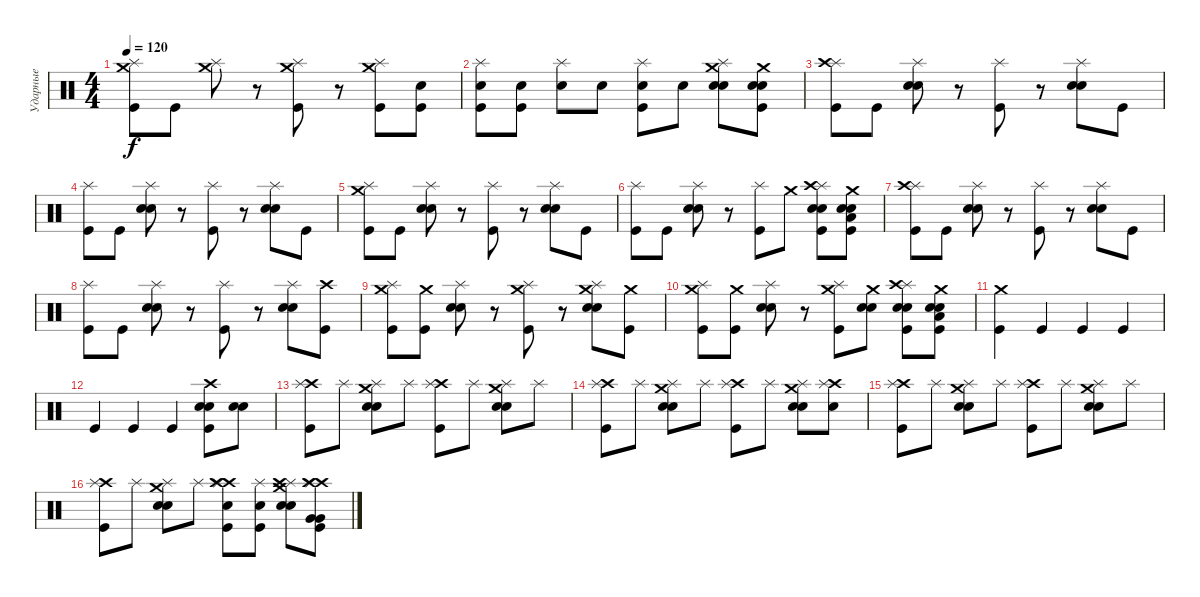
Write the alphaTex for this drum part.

\track ("Ударные" "Ударные") {instrument percussion}
\staff {score}
\articulation defaults
\ts (4 4)
\tempo 120
\clef neutral
\ks c
("Splash (hit)" "Crash medium (hit)" "Kick (hit)").8{dy f} "Kick (hit)".8 ("Splash (hit)" "Crash medium (hit)").8 r.8 ("Splash (hit)" "Crash medium (hit)" "Kick (hit)").8 r.8 ("Splash (hit)" "Crash medium (hit)" "Kick (hit)").8 ("Snare (hit) 2" "Kick (hit)").8 |
("Splash (hit)" "Snare (hit) 2" "Kick (hit)").8 ("Snare (hit) 2" "Kick (hit)").8 ("Splash (hit)" "Snare (hit) 2").8 "Snare (hit) 2".8 ("Splash (hit)" "Snare (hit) 2" "Kick (hit)").8 "Electric Snare (hit)".8 ("Splash (hit)" "Crash medium (hit)" "Electric Snare (hit)" "Electric Snare (hit)").8 ("Crash medium (hit)" "Electric Snare (hit)" "Electric Snare (hit)" "Kick (hit)").8 |
("Splash (hit)" "Crash high (hit)" "Kick (hit)").8 "Kick (hit)".8 ("Splash (hit)" "Electric Snare (hit)" "Electric Snare (hit)").8 r.8 ("Splash (hit)" "Kick (hit)").8 r.8 ("Splash (hit)" "Electric Snare (hit)" "Electric Snare (hit)").8 "Kick (hit)".8 |
("Splash (hit)" "Kick (hit)").8 "Kick (hit)".8 ("Splash (hit)" "Electric Snare (hit)" "Electric Snare (hit)").8 r.8 ("Splash (hit)" "Kick (hit)").8 r.8 ("Splash (hit)" "Electric Snare (hit)" "Electric Snare (hit)").8 "Kick (hit)".8 |
("Splash (hit)" "Crash medium (hit)" "Kick (hit)").8 "Kick (hit)".8 ("Splash (hit)" "Electric Snare (hit)" "Electric Snare (hit)").8 r.8 ("Splash (hit)" "Kick (hit)").8 r.8 ("Splash (hit)" "Electric Snare (hit)" "Electric Snare (hit)").8 "Kick (hit)".8 |
("Splash (hit)" "Kick (hit)").8 "Kick (hit)".8 ("Splash (hit)" "Electric Snare (hit)" "Electric Snare (hit)").8 r.8 ("Splash (hit)" "Kick (hit)").8 "Crash medium (hit)".8 ("Splash (hit)" "Crash high (hit)" "Electric Snare (hit)" "Electric Snare (hit)" "Kick (hit)").8 ("Crash medium (hit)" "Electric Snare (hit)" "Electric Snare (hit)" "Low Floor Tom (hit)" "Kick (hit)").8 |
("Splash (hit)" "Crash high (hit)" "Kick (hit)").8 "Kick (hit)".8 ("Splash (hit)" "Electric Snare (hit)" "Electric Snare (hit)").8 r.8 ("Splash (hit)" "Kick (hit)").8 r.8 ("Splash (hit)" "Electric Snare (hit)" "Electric Snare (hit)").8 "Kick (hit)".8 |
("Splash (hit)" "Kick (hit)").8 "Kick (hit)".8 ("Splash (hit)" "Electric Snare (hit)" "Electric Snare (hit)").8 r.8 ("Splash (hit)" "Kick (hit)").8 r.8 ("Splash (hit)" "Electric Snare (hit)" "Electric Snare (hit)").8 ("Crash high (hit)" "Kick (hit)").8 |
("Splash (hit)" "Crash medium (hit)" "Kick (hit)").8 ("Crash medium (hit)" "Kick (hit)").8 ("Splash (hit)" "Electric Snare (hit)" "Electric Snare (hit)").8 r.8 ("Splash (hit)" "Crash medium (hit)" "Kick (hit)").8 r.8 ("Splash (hit)" "Crash medium (hit)" "Electric Snare (hit)" "Electric Snare (hit)").8 ("Crash medium (hit)" "Kick (hit)").8 |
("Splash (hit)" "Crash medium (hit)" "Kick (hit)").8 ("Crash medium (hit)" "Kick (hit)").8 ("Splash (hit)" "Electric Snare (hit)" "Electric Snare (hit)").8 r.8 ("Splash (hit)" "Crash medium (hit)" "Kick (hit)").8 ("Crash medium (hit)" "Electric Snare (hit)" "Electric Snare (hit)").8 ("Splash (hit)" "Crash high (hit)" "Electric Snare (hit)" "Electric Snare (hit)" "Kick (hit)").8 ("Crash medium (hit)" "Electric Snare (hit)" "Electric Snare (hit)" "Low Floor Tom (hit)" "Kick (hit)").8 |
("Crash medium (hit)" "Kick (hit)").4 "Kick (hit)".4 "Kick (hit)".4 "Kick (hit)".4 |
"Kick (hit)".4 "Kick (hit)".4 "Kick (hit)".4 ("Crash high (hit)" "Electric Snare (hit)" "Electric Snare (hit)" "Kick (hit)").8 ("Electric Snare (hit)" "Electric Snare (hit)").8 |
("Crash high (hit)" "Splash (hit)" "Kick (hit)").8 "Splash (hit)".8 ("Crash medium (hit)" "Splash (hit)" "Electric Snare (hit)" "Electric Snare (hit)").8 "Splash (hit)".8 ("Crash high (hit)" "Splash (hit)" "Kick (hit)").8 "Splash (hit)".8 ("Crash medium (hit)" "Splash (hit)" "Electric Snare (hit)" "Electric Snare (hit)").8 "Splash (hit)".8 |
("Crash high (hit)" "Splash (hit)" "Kick (hit)").8 "Splash (hit)".8 ("Crash medium (hit)" "Splash (hit)" "Electric Snare (hit)" "Electric Snare (hit)").8 "Splash (hit)".8 ("Crash high (hit)" "Splash (hit)" "Kick (hit)").8 "Splash (hit)".8 ("Crash medium (hit)" "Splash (hit)" "Electric Snare (hit)" "Electric Snare (hit)").8 ("Crash high (hit)" "Splash (hit)" "Electric Snare (hit)").8 |
("Crash high (hit)" "Splash (hit)" "Kick (hit)").8 "Splash (hit)".8 ("Crash medium (hit)" "Splash (hit)" "Electric Snare (hit)" "Electric Snare (hit)").8 "Splash (hit)".8 ("Crash high (hit)" "Splash (hit)" "Kick (hit)").8 "Splash (hit)".8 ("Crash medium (hit)" "Splash (hit)" "Electric Snare (hit)" "Electric Snare (hit)").8 "Splash (hit)".8 |
("Crash high (hit)" "Splash (hit)" "Kick (hit)").8 "Splash (hit)".8 ("Crash medium (hit)" "Splash (hit)" "Electric Snare (hit)" "Electric Snare (hit)").8 "Splash (hit)".8 ("Crash high (hit)" "Splash (hit)" "Crash high (hit)" "Electric Snare (hit)" "Kick (hit)").8 ("Splash (hit)" "Electric Snare (hit)" "Kick (hit)").8 ("Crash medium (hit)" "Splash (hit)" "Crash high (hit)" "Electric Snare (hit)" "Electric Snare (hit)").8 ("Crash high (hit)" "Splash (hit)" "Crash high (hit)" "Very Low Tom (hit)" "Very Low Tom (hit)" "Kick (hit)").8
